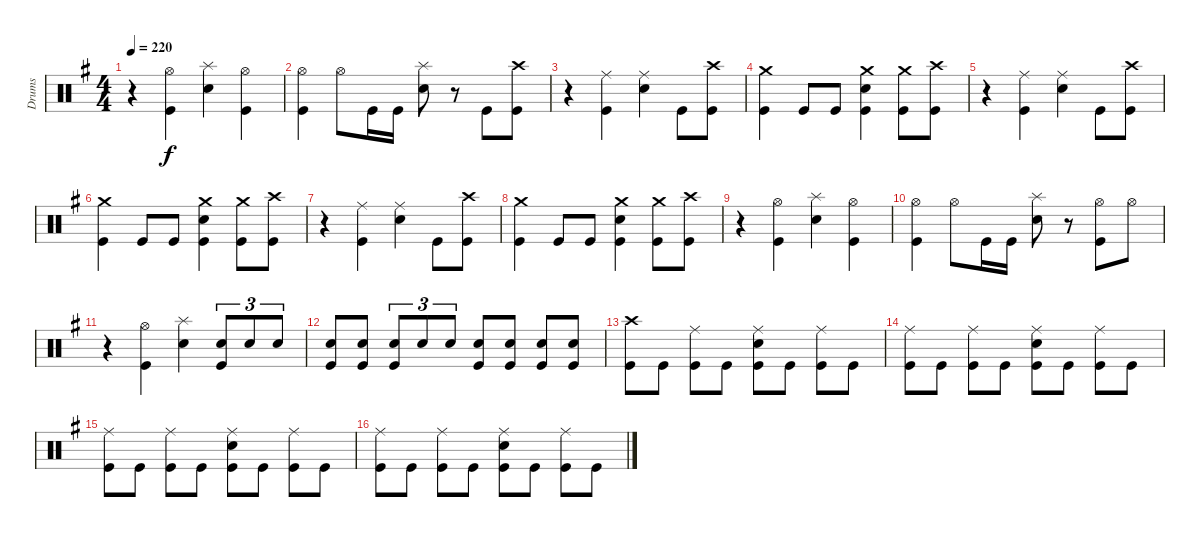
\track ("Drums" "Drums") {instrument percussion}
\staff {score}
\articulation defaults
\ts (4 4)
\tempo 220
\clef neutral
\ks eminor
r.4{dy f} ("Kick (hit)" "Hi-Hat (open)").4 ("Snare (hit) 2" "Splash (hit)").4 ("Kick (hit)" "Hi-Hat (open)").4 |
("Kick (hit)" "Hi-Hat (open)").4 "Hi-Hat (open)".8 "Kick (hit)".16 "Kick (hit)".16 ("Snare (hit) 2" "Splash (hit)").8 r.8 "Kick (hit)".8 ("Crash high (hit)" "Kick (hit)").8 |
r.4 ("Kick (hit)" "Ride (middle)").4 ("Snare (hit) 2" "Ride (middle)").4 "Kick (hit)".8 ("Kick (hit)" "Crash high (hit)").8 |
("Kick (hit)" "Crash medium (hit)").4 "Kick (hit)".8 "Kick (hit)".8 ("Kick (hit)" "Crash medium (hit)" "Snare (hit) 2").4 ("Kick (hit)" "Crash medium (hit)").8 ("Kick (hit)" "Crash high (hit)").8 |
r.4 ("Kick (hit)" "Ride (middle)").4 ("Snare (hit) 2" "Ride (middle)").4 "Kick (hit)".8 ("Kick (hit)" "Crash high (hit)").8 |
("Kick (hit)" "Crash medium (hit)").4 "Kick (hit)".8 "Kick (hit)".8 ("Kick (hit)" "Crash medium (hit)" "Snare (hit) 2").4 ("Kick (hit)" "Crash medium (hit)").8 ("Kick (hit)" "Crash high (hit)").8 |
r.4 ("Kick (hit)" "Ride (middle)").4 ("Snare (hit) 2" "Ride (middle)").4 "Kick (hit)".8 ("Kick (hit)" "Crash high (hit)").8 |
("Kick (hit)" "Crash medium (hit)").4 "Kick (hit)".8 "Kick (hit)".8 ("Kick (hit)" "Crash medium (hit)" "Snare (hit) 2").4 ("Kick (hit)" "Crash medium (hit)").8 ("Kick (hit)" "Crash high (hit)").8 |
r.4 ("Kick (hit)" "Hi-Hat (open)").4 ("Snare (hit) 2" "Splash (hit)").4 ("Kick (hit)" "Hi-Hat (open)").4 |
("Kick (hit)" "Hi-Hat (open)").4 "Hi-Hat (open)".8 "Kick (hit)".16 "Kick (hit)".16 ("Snare (hit) 2" "Splash (hit)").8 r.8 ("Kick (hit)" "Hi-Hat (open)").8 "Hi-Hat (open)".8 |
r.4 ("Kick (hit)" "Hi-Hat (open)").4 ("Snare (hit) 2" "Splash (hit)").4 ("Kick (hit)" "Snare (hit) 2").8{tu (3 2)} "Snare (hit) 2".8{tu (3 2)} "Snare (hit) 2".8{tu (3 2)} |
("Kick (hit)" "Snare (hit) 2").8 ("Snare (hit) 2" "Kick (hit)").8 ("Snare (hit) 2" "Kick (hit)").8{tu (3 2)} "Snare (hit) 2".8{tu (3 2)} "Snare (hit) 2".8{tu (3 2)} ("Snare (hit) 2" "Kick (hit)").8 ("Snare (hit) 2" "Kick (hit)").8 ("Snare (hit) 2" "Kick (hit)").8 ("Snare (hit) 2" "Kick (hit)").8 |
("Kick (hit)" "Crash high (hit)").8 "Kick (hit)".8 ("Kick (hit)" "Ride (middle)").8 "Kick (hit)".8 ("Kick (hit)" "Snare (hit) 2" "Ride (middle)").8 "Kick (hit)".8 ("Kick (hit)" "Ride (middle)").8 "Kick (hit)".8 |
("Kick (hit)" "Ride (middle)").8 "Kick (hit)".8 ("Kick (hit)" "Ride (middle)").8 "Kick (hit)".8 ("Kick (hit)" "Snare (hit) 2" "Ride (middle)").8 "Kick (hit)".8 ("Kick (hit)" "Ride (middle)").8 "Kick (hit)".8 |
("Kick (hit)" "Ride (middle)").8 "Kick (hit)".8 ("Kick (hit)" "Ride (middle)").8 "Kick (hit)".8 ("Kick (hit)" "Snare (hit) 2" "Ride (middle)").8 "Kick (hit)".8 ("Kick (hit)" "Ride (middle)").8 "Kick (hit)".8 |
("Kick (hit)" "Ride (middle)").8 "Kick (hit)".8 ("Kick (hit)" "Ride (middle)").8 "Kick (hit)".8 ("Kick (hit)" "Snare (hit) 2" "Ride (middle)").8 "Kick (hit)".8 ("Kick (hit)" "Ride (middle)").8 "Kick (hit)".8
